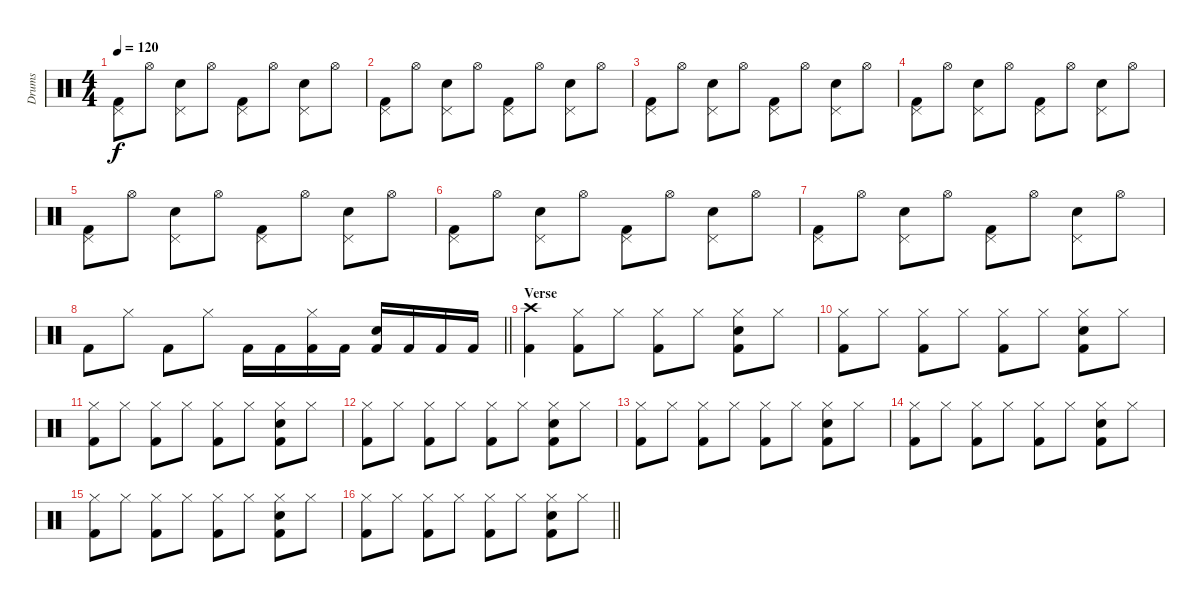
\track ("Drums" "Drums") {instrument percussion}
\staff {score}
\articulation defaults
\ts (4 4)
\tempo 120
\clef neutral
\ks c
("Pedal Hi-Hat (hit)" "Kick (hit) 2").8{dy f} "Hi-Hat (open)".8 ("Pedal Hi-Hat (hit)" "Electric Snare (hit)").8 "Hi-Hat (open)".8 ("Pedal Hi-Hat (hit)" "Kick (hit) 2").8 "Hi-Hat (open)".8 ("Pedal Hi-Hat (hit)" "Electric Snare (hit)").8 "Hi-Hat (open)".8 |
("Pedal Hi-Hat (hit)" "Kick (hit) 2").8 "Hi-Hat (open)".8 ("Pedal Hi-Hat (hit)" "Electric Snare (hit)").8 "Hi-Hat (open)".8 ("Pedal Hi-Hat (hit)" "Kick (hit) 2").8 "Hi-Hat (open)".8 ("Pedal Hi-Hat (hit)" "Electric Snare (hit)").8 "Hi-Hat (open)".8 |
("Pedal Hi-Hat (hit)" "Kick (hit) 2").8 "Hi-Hat (open)".8 ("Pedal Hi-Hat (hit)" "Electric Snare (hit)").8 "Hi-Hat (open)".8 ("Pedal Hi-Hat (hit)" "Kick (hit) 2").8 "Hi-Hat (open)".8 ("Pedal Hi-Hat (hit)" "Electric Snare (hit)").8 "Hi-Hat (open)".8 |
("Pedal Hi-Hat (hit)" "Kick (hit) 2").8 "Hi-Hat (open)".8 ("Pedal Hi-Hat (hit)" "Electric Snare (hit)").8 "Hi-Hat (open)".8 ("Pedal Hi-Hat (hit)" "Kick (hit) 2").8 "Hi-Hat (open)".8 ("Pedal Hi-Hat (hit)" "Electric Snare (hit)").8 "Hi-Hat (open)".8 |
("Pedal Hi-Hat (hit)" "Kick (hit) 2").8 "Hi-Hat (open)".8 ("Pedal Hi-Hat (hit)" "Electric Snare (hit)").8 "Hi-Hat (open)".8 ("Pedal Hi-Hat (hit)" "Kick (hit) 2").8 "Hi-Hat (open)".8 ("Pedal Hi-Hat (hit)" "Electric Snare (hit)").8 "Hi-Hat (open)".8 |
("Pedal Hi-Hat (hit)" "Kick (hit) 2").8 "Hi-Hat (open)".8 ("Pedal Hi-Hat (hit)" "Electric Snare (hit)").8 "Hi-Hat (open)".8 ("Pedal Hi-Hat (hit)" "Kick (hit) 2").8 "Hi-Hat (open)".8 ("Pedal Hi-Hat (hit)" "Electric Snare (hit)").8 "Hi-Hat (open)".8 |
("Pedal Hi-Hat (hit)" "Kick (hit) 2").8 "Hi-Hat (open)".8 ("Pedal Hi-Hat (hit)" "Electric Snare (hit)").8 "Hi-Hat (open)".8 ("Pedal Hi-Hat (hit)" "Kick (hit) 2").8 "Hi-Hat (open)".8 ("Pedal Hi-Hat (hit)" "Electric Snare (hit)").8 "Hi-Hat (open)".8 |
\barLineRight lightlight "Kick (hit) 2".8 "Hi-Hat (closed)".8 "Kick (hit) 2".8 "Hi-Hat (closed)".8 "Kick (hit) 2".16 "Kick (hit) 2".16
("Hi-Hat (closed)" "Kick (hit) 2").16 "Kick (hit) 2".16 ("Electric Snare (hit)" "Kick (hit) 2").16 "Kick (hit) 2".16 "Kick (hit) 2".16 "Kick (hit) 2".16 |
\section ("" "Verse")
("Crash high (hit)" "Kick (hit) 2").4 ("Hi-Hat (closed)" "Kick (hit) 2").8 "Hi-Hat (closed)".8 ("Hi-Hat (closed)" "Kick (hit) 2").8 "Hi-Hat (closed)".8 ("Hi-Hat (closed)" "Electric Snare (hit)" "Kick (hit) 2").8 "Hi-Hat (closed)".8 |
("Hi-Hat (closed)" "Kick (hit) 2").8 "Hi-Hat (closed)".8 ("Hi-Hat (closed)" "Kick (hit) 2").8 "Hi-Hat (closed)".8 ("Hi-Hat (closed)" "Kick (hit) 2").8 "Hi-Hat (closed)".8 ("Hi-Hat (closed)" "Electric Snare (hit)" "Kick (hit) 2").8 "Hi-Hat (closed)".8 |
("Hi-Hat (closed)" "Kick (hit) 2").8 "Hi-Hat (closed)".8 ("Hi-Hat (closed)" "Kick (hit) 2").8 "Hi-Hat (closed)".8 ("Hi-Hat (closed)" "Kick (hit) 2").8 "Hi-Hat (closed)".8 ("Hi-Hat (closed)" "Electric Snare (hit)" "Kick (hit) 2").8 "Hi-Hat (closed)".8 |
("Hi-Hat (closed)" "Kick (hit) 2").8 "Hi-Hat (closed)".8 ("Hi-Hat (closed)" "Kick (hit) 2").8 "Hi-Hat (closed)".8 ("Hi-Hat (closed)" "Kick (hit) 2").8 "Hi-Hat (closed)".8 ("Hi-Hat (closed)" "Electric Snare (hit)" "Kick (hit) 2").8 "Hi-Hat (closed)".8 |
("Hi-Hat (closed)" "Kick (hit) 2").8 "Hi-Hat (closed)".8 ("Hi-Hat (closed)" "Kick (hit) 2").8 "Hi-Hat (closed)".8 ("Hi-Hat (closed)" "Kick (hit) 2").8 "Hi-Hat (closed)".8 ("Hi-Hat (closed)" "Electric Snare (hit)" "Kick (hit) 2").8 "Hi-Hat (closed)".8 |
("Hi-Hat (closed)" "Kick (hit) 2").8 "Hi-Hat (closed)".8 ("Hi-Hat (closed)" "Kick (hit) 2").8 "Hi-Hat (closed)".8 ("Hi-Hat (closed)" "Kick (hit) 2").8 "Hi-Hat (closed)".8 ("Hi-Hat (closed)" "Electric Snare (hit)" "Kick (hit) 2").8 "Hi-Hat (closed)".8 |
("Hi-Hat (closed)" "Kick (hit) 2").8 "Hi-Hat (closed)".8 ("Hi-Hat (closed)" "Kick (hit) 2").8 "Hi-Hat (closed)".8 ("Hi-Hat (closed)" "Kick (hit) 2").8 "Hi-Hat (closed)".8 ("Hi-Hat (closed)" "Electric Snare (hit)" "Kick (hit) 2").8 "Hi-Hat (closed)".8 |
\barLineRight lightlight
("Hi-Hat (closed)" "Kick (hit) 2").8 "Hi-Hat (closed)".8 ("Hi-Hat (closed)" "Kick (hit) 2").8 "Hi-Hat (closed)".8 ("Hi-Hat (closed)" "Kick (hit) 2").8 "Hi-Hat (closed)".8 ("Hi-Hat (closed)" "Electric Snare (hit)" "Kick (hit) 2").8 "Hi-Hat (closed)".8
